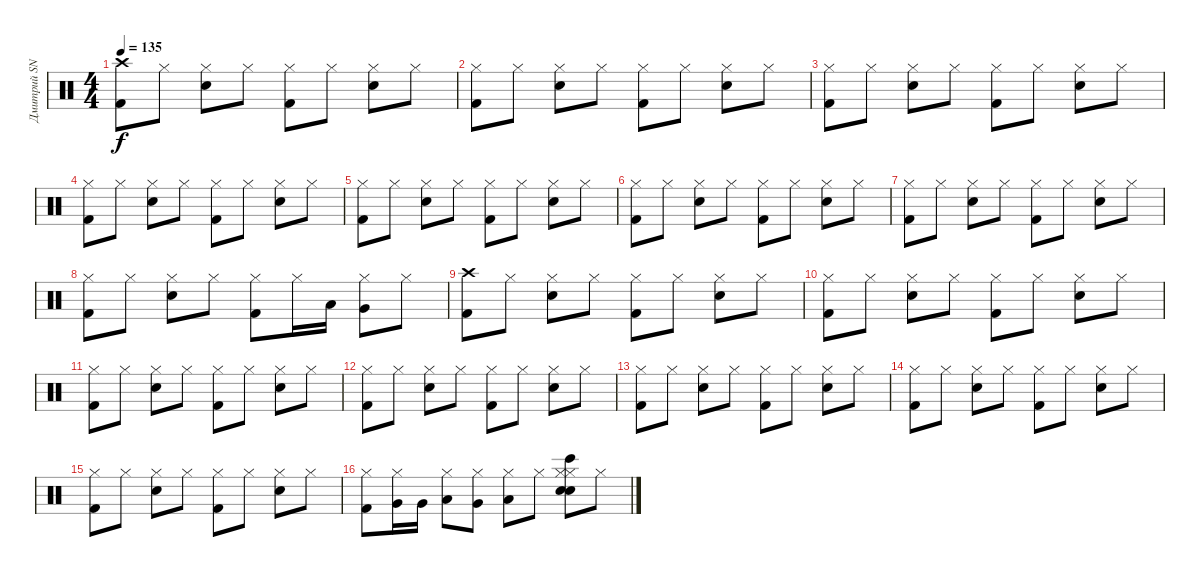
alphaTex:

\track ("Дмитрий SNAKE Хакимов" "Дмитрий SN") {instrument percussion}
\staff {score}
\articulation defaults
\ts (4 4)
\tempo 135
\clef neutral
\ks c
("Crash high (hit)" "Kick (hit) 2").8{dy f} "Hi-Hat (closed)".8 ("Hi-Hat (closed)" "Electric Snare (hit)").8 "Hi-Hat (closed)".8 ("Hi-Hat (closed)" "Kick (hit) 2").8 "Hi-Hat (closed)".8 ("Hi-Hat (closed)" "Electric Snare (hit)").8 "Hi-Hat (closed)".8 |
("Hi-Hat (closed)" "Kick (hit) 2").8 "Hi-Hat (closed)".8 ("Hi-Hat (closed)" "Electric Snare (hit)").8 "Hi-Hat (closed)".8 ("Hi-Hat (closed)" "Kick (hit) 2").8 "Hi-Hat (closed)".8 ("Hi-Hat (closed)" "Electric Snare (hit)").8 "Hi-Hat (closed)".8 |
("Hi-Hat (closed)" "Kick (hit) 2").8 "Hi-Hat (closed)".8 ("Hi-Hat (closed)" "Electric Snare (hit)").8 "Hi-Hat (closed)".8 ("Hi-Hat (closed)" "Kick (hit) 2").8 "Hi-Hat (closed)".8 ("Hi-Hat (closed)" "Electric Snare (hit)").8 "Hi-Hat (closed)".8 |
("Hi-Hat (closed)" "Kick (hit) 2").8 "Hi-Hat (closed)".8 ("Hi-Hat (closed)" "Electric Snare (hit)").8 "Hi-Hat (closed)".8 ("Hi-Hat (closed)" "Kick (hit) 2").8 "Hi-Hat (closed)".8 ("Hi-Hat (closed)" "Electric Snare (hit)").8 "Hi-Hat (closed)".8 |
("Hi-Hat (closed)" "Kick (hit) 2").8 "Hi-Hat (closed)".8 ("Hi-Hat (closed)" "Electric Snare (hit)").8 "Hi-Hat (closed)".8 ("Hi-Hat (closed)" "Kick (hit) 2").8 "Hi-Hat (closed)".8 ("Hi-Hat (closed)" "Electric Snare (hit)").8 "Hi-Hat (closed)".8 |
("Hi-Hat (closed)" "Kick (hit) 2").8 "Hi-Hat (closed)".8 ("Hi-Hat (closed)" "Electric Snare (hit)").8 "Hi-Hat (closed)".8 ("Hi-Hat (closed)" "Kick (hit) 2").8 "Hi-Hat (closed)".8 ("Hi-Hat (closed)" "Electric Snare (hit)").8 "Hi-Hat (closed)".8 |
("Hi-Hat (closed)" "Kick (hit) 2").8 "Hi-Hat (closed)".8 ("Hi-Hat (closed)" "Electric Snare (hit)").8 "Hi-Hat (closed)".8 ("Hi-Hat (closed)" "Kick (hit) 2").8 "Hi-Hat (closed)".8 ("Hi-Hat (closed)" "Electric Snare (hit)").8 "Hi-Hat (closed)".8 |
("Hi-Hat (closed)" "Kick (hit) 2").8 "Hi-Hat (closed)".8 ("Hi-Hat (closed)" "Electric Snare (hit)").8 "Hi-Hat (closed)".8 ("Hi-Hat (closed)" "Kick (hit) 2").8 "Hi-Hat (closed)".16 "Low Tom (hit)".16 ("Hi-Hat (closed)" "Very Low Tom (hit)").8 "Hi-Hat (closed)".8 |
("Crash high (hit)" "Kick (hit) 2").8 "Hi-Hat (closed)".8 ("Hi-Hat (closed)" "Electric Snare (hit)").8 "Hi-Hat (closed)".8 ("Hi-Hat (closed)" "Kick (hit) 2").8 "Hi-Hat (closed)".8 ("Hi-Hat (closed)" "Electric Snare (hit)").8 "Hi-Hat (closed)".8 |
("Hi-Hat (closed)" "Kick (hit) 2").8 "Hi-Hat (closed)".8 ("Hi-Hat (closed)" "Electric Snare (hit)").8 "Hi-Hat (closed)".8 ("Hi-Hat (closed)" "Kick (hit) 2").8 "Hi-Hat (closed)".8 ("Hi-Hat (closed)" "Electric Snare (hit)").8 "Hi-Hat (closed)".8 |
("Hi-Hat (closed)" "Kick (hit) 2").8 "Hi-Hat (closed)".8 ("Hi-Hat (closed)" "Electric Snare (hit)").8 "Hi-Hat (closed)".8 ("Hi-Hat (closed)" "Kick (hit) 2").8 "Hi-Hat (closed)".8 ("Hi-Hat (closed)" "Electric Snare (hit)").8 "Hi-Hat (closed)".8 |
("Hi-Hat (closed)" "Kick (hit) 2").8 "Hi-Hat (closed)".8 ("Hi-Hat (closed)" "Electric Snare (hit)").8 "Hi-Hat (closed)".8 ("Hi-Hat (closed)" "Kick (hit) 2").8 "Hi-Hat (closed)".8 ("Hi-Hat (closed)" "Electric Snare (hit)").8 "Hi-Hat (closed)".8 |
("Hi-Hat (closed)" "Kick (hit) 2").8 "Hi-Hat (closed)".8 ("Hi-Hat (closed)" "Electric Snare (hit)").8 "Hi-Hat (closed)".8 ("Hi-Hat (closed)" "Kick (hit) 2").8 "Hi-Hat (closed)".8 ("Hi-Hat (closed)" "Electric Snare (hit)").8 "Hi-Hat (closed)".8 |
("Hi-Hat (closed)" "Kick (hit) 2").8 "Hi-Hat (closed)".8 ("Hi-Hat (closed)" "Electric Snare (hit)").8 "Hi-Hat (closed)".8 ("Hi-Hat (closed)" "Kick (hit) 2").8 "Hi-Hat (closed)".8 ("Hi-Hat (closed)" "Electric Snare (hit)").8 "Hi-Hat (closed)".8 |
("Hi-Hat (closed)" "Kick (hit) 2").8 "Hi-Hat (closed)".8 ("Hi-Hat (closed)" "Electric Snare (hit)").8 "Hi-Hat (closed)".8 ("Hi-Hat (closed)" "Kick (hit) 2").8 "Hi-Hat (closed)".8 ("Hi-Hat (closed)" "Electric Snare (hit)").8 "Hi-Hat (closed)".8 |
("Hi-Hat (closed)" "Kick (hit) 2").8 ("Hi-Hat (closed)" "Very Low Tom (hit)").16 "Very Low Tom (hit)".16 ("Hi-Hat (closed)" "Low Tom (hit)").8 ("Hi-Hat (closed)" "Very Low Tom (hit)").8 ("Hi-Hat (closed)" "Low Floor Tom (hit)").8 "Hi-Hat (closed)".8 ("Hi-Hat (closed)" "Bongo High (hit)" "Electric Snare (hit)" "Snare (hit) 2" "Hi-Hat (closed)").8 "Hi-Hat (closed)".8
